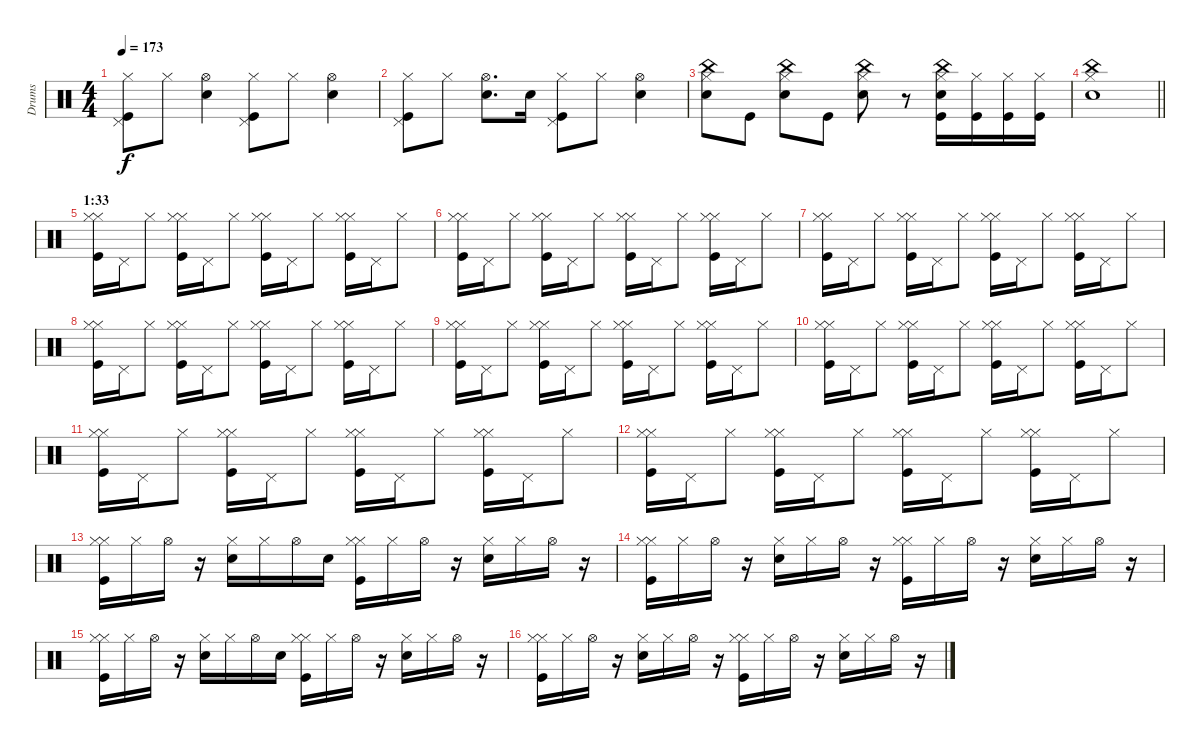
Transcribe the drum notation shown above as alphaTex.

\track ("Drums" "Drums") {instrument percussion}
\staff {score}
\articulation defaults
\ts (4 4)
\tempo 173
\clef neutral
\ks c
("Pedal Hi-Hat (hit)" "Hi-Hat (closed)" "Kick (hit)").8{dy f} "Hi-Hat (closed)".8 ("Hi-Hat (open)" "Snare (hit) 2").4 ("Pedal Hi-Hat (hit)" "Hi-Hat (closed)" "Kick (hit)").8 "Hi-Hat (closed)".8 ("Hi-Hat (open)" "Snare (hit) 2").4 |
("Pedal Hi-Hat (hit)" "Hi-Hat (closed)" "Kick (hit)").8 "Hi-Hat (closed)".8 ("Hi-Hat (open)" "Snare (hit) 2").8{d} "Snare (hit) 2".16 ("Pedal Hi-Hat (hit)" "Hi-Hat (closed)" "Kick (hit)").8 "Hi-Hat (closed)".8 ("Hi-Hat (open)" "Snare (hit) 2").4 |
("China (hit)" "Snare (hit) 2" "Hi-Hat (closed)").8 "Kick (hit)".8 ("China (hit)" "Snare (hit) 2" "Hi-Hat (closed)").8 "Kick (hit)".8 ("China (hit)" "Snare (hit) 2" "Hi-Hat (closed)").8 r.8 ("China (hit)" "Snare (hit) 2" "Hi-Hat (closed)" "Kick (hit)").16 ("Hi-Hat (closed)" "Kick (hit)").16 ("Hi-Hat (closed)" "Kick (hit)").16 ("Hi-Hat (closed)" "Kick (hit)").16 |
\barLineRight lightlight
("China (hit)" "Snare (hit) 2" "Hi-Hat (closed)").1 |
\section ("" "1:33")
("Hi-Hat (closed)" "Hi-Hat (closed)" "Kick (hit)").16 "Pedal Hi-Hat (hit)".16 "Hi-Hat (closed)".8 ("Hi-Hat (closed)" "Hi-Hat (closed)" "Kick (hit)").16 "Pedal Hi-Hat (hit)".16 "Hi-Hat (closed)".8 ("Hi-Hat (closed)" "Hi-Hat (closed)" "Kick (hit)").16 "Pedal Hi-Hat (hit)".16 "Hi-Hat (closed)".8 ("Hi-Hat (closed)" "Hi-Hat (closed)" "Kick (hit)").16 "Pedal Hi-Hat (hit)".16 "Hi-Hat (closed)".8 |
("Hi-Hat (closed)" "Hi-Hat (closed)" "Kick (hit)").16 "Pedal Hi-Hat (hit)".16 "Hi-Hat (closed)".8 ("Hi-Hat (closed)" "Hi-Hat (closed)" "Kick (hit)").16 "Pedal Hi-Hat (hit)".16 "Hi-Hat (closed)".8 ("Hi-Hat (closed)" "Hi-Hat (closed)" "Kick (hit)").16 "Pedal Hi-Hat (hit)".16 "Hi-Hat (closed)".8 ("Hi-Hat (closed)" "Hi-Hat (closed)" "Kick (hit)").16 "Pedal Hi-Hat (hit)".16 "Hi-Hat (closed)".8 |
("Hi-Hat (closed)" "Hi-Hat (closed)" "Kick (hit)").16 "Pedal Hi-Hat (hit)".16 "Hi-Hat (closed)".8 ("Hi-Hat (closed)" "Hi-Hat (closed)" "Kick (hit)").16 "Pedal Hi-Hat (hit)".16 "Hi-Hat (closed)".8 ("Hi-Hat (closed)" "Hi-Hat (closed)" "Kick (hit)").16 "Pedal Hi-Hat (hit)".16 "Hi-Hat (closed)".8 ("Hi-Hat (closed)" "Hi-Hat (closed)" "Kick (hit)").16 "Pedal Hi-Hat (hit)".16 "Hi-Hat (closed)".8 |
("Hi-Hat (closed)" "Hi-Hat (closed)" "Kick (hit)").16 "Pedal Hi-Hat (hit)".16 "Hi-Hat (closed)".8 ("Hi-Hat (closed)" "Hi-Hat (closed)" "Kick (hit)").16 "Pedal Hi-Hat (hit)".16 "Hi-Hat (closed)".8 ("Hi-Hat (closed)" "Hi-Hat (closed)" "Kick (hit)").16 "Pedal Hi-Hat (hit)".16 "Hi-Hat (closed)".8 ("Hi-Hat (closed)" "Hi-Hat (closed)" "Kick (hit)").16 "Pedal Hi-Hat (hit)".16 "Hi-Hat (closed)".8 |
("Hi-Hat (closed)" "Hi-Hat (closed)" "Kick (hit)").16 "Pedal Hi-Hat (hit)".16 "Hi-Hat (closed)".8 ("Hi-Hat (closed)" "Hi-Hat (closed)" "Kick (hit)").16 "Pedal Hi-Hat (hit)".16 "Hi-Hat (closed)".8 ("Hi-Hat (closed)" "Hi-Hat (closed)" "Kick (hit)").16 "Pedal Hi-Hat (hit)".16 "Hi-Hat (closed)".8 ("Hi-Hat (closed)" "Hi-Hat (closed)" "Kick (hit)").16 "Pedal Hi-Hat (hit)".16 "Hi-Hat (closed)".8 |
("Hi-Hat (closed)" "Hi-Hat (closed)" "Kick (hit)").16 "Pedal Hi-Hat (hit)".16 "Hi-Hat (closed)".8 ("Hi-Hat (closed)" "Hi-Hat (closed)" "Kick (hit)").16 "Pedal Hi-Hat (hit)".16 "Hi-Hat (closed)".8 ("Hi-Hat (closed)" "Hi-Hat (closed)" "Kick (hit)").16 "Pedal Hi-Hat (hit)".16 "Hi-Hat (closed)".8 ("Hi-Hat (closed)" "Hi-Hat (closed)" "Kick (hit)").16 "Pedal Hi-Hat (hit)".16 "Hi-Hat (closed)".8 |
("Hi-Hat (closed)" "Hi-Hat (closed)" "Kick (hit)").16 "Pedal Hi-Hat (hit)".16 "Hi-Hat (closed)".8 ("Hi-Hat (closed)" "Hi-Hat (closed)" "Kick (hit)").16 "Pedal Hi-Hat (hit)".16 "Hi-Hat (closed)".8 ("Hi-Hat (closed)" "Hi-Hat (closed)" "Kick (hit)").16 "Pedal Hi-Hat (hit)".16 "Hi-Hat (closed)".8 ("Hi-Hat (closed)" "Hi-Hat (closed)" "Kick (hit)").16 "Pedal Hi-Hat (hit)".16 "Hi-Hat (closed)".8 |
("Hi-Hat (closed)" "Hi-Hat (closed)" "Kick (hit)").16 "Pedal Hi-Hat (hit)".16 "Hi-Hat (closed)".8 ("Hi-Hat (closed)" "Hi-Hat (closed)" "Kick (hit)").16 "Pedal Hi-Hat (hit)".16 "Hi-Hat (closed)".8 ("Hi-Hat (closed)" "Hi-Hat (closed)" "Kick (hit)").16 "Pedal Hi-Hat (hit)".16 "Hi-Hat (closed)".8 ("Hi-Hat (closed)" "Hi-Hat (closed)" "Kick (hit)").16 "Pedal Hi-Hat (hit)".16 "Hi-Hat (closed)".8 |
("Hi-Hat (closed)" "Hi-Hat (closed)" "Kick (hit)").16 "Hi-Hat (closed)".16 "Hi-Hat (open)".16 r.16 ("Hi-Hat (closed)" "Snare (hit) 2").16 "Hi-Hat (closed)".16 "Hi-Hat (open)".16 "Snare (hit) 2".16 ("Hi-Hat (closed)" "Hi-Hat (closed)" "Kick (hit)").16 "Hi-Hat (closed)".16 "Hi-Hat (open)".16 r.16 ("Hi-Hat (closed)" "Snare (hit) 2").16 "Hi-Hat (closed)".16 "Hi-Hat (open)".16 r.16 |
("Hi-Hat (closed)" "Hi-Hat (closed)" "Kick (hit)").16 "Hi-Hat (closed)".16 "Hi-Hat (open)".16 r.16 ("Hi-Hat (closed)" "Snare (hit) 2").16 "Hi-Hat (closed)".16 "Hi-Hat (open)".16 r.16 ("Hi-Hat (closed)" "Hi-Hat (closed)" "Kick (hit)").16 "Hi-Hat (closed)".16 "Hi-Hat (open)".16 r.16 ("Hi-Hat (closed)" "Snare (hit) 2").16 "Hi-Hat (closed)".16 "Hi-Hat (open)".16 r.16 |
("Hi-Hat (closed)" "Hi-Hat (closed)" "Kick (hit)").16 "Hi-Hat (closed)".16 "Hi-Hat (open)".16 r.16 ("Hi-Hat (closed)" "Snare (hit) 2").16 "Hi-Hat (closed)".16 "Hi-Hat (open)".16 "Snare (hit) 2".16 ("Hi-Hat (closed)" "Hi-Hat (closed)" "Kick (hit)").16 "Hi-Hat (closed)".16 "Hi-Hat (open)".16 r.16 ("Hi-Hat (closed)" "Snare (hit) 2").16 "Hi-Hat (closed)".16 "Hi-Hat (open)".16 r.16 |
("Hi-Hat (closed)" "Hi-Hat (closed)" "Kick (hit)").16 "Hi-Hat (closed)".16 "Hi-Hat (open)".16 r.16 ("Hi-Hat (closed)" "Snare (hit) 2").16 "Hi-Hat (closed)".16 "Hi-Hat (open)".16 r.16 ("Hi-Hat (closed)" "Hi-Hat (closed)" "Kick (hit)").16 "Hi-Hat (closed)".16 "Hi-Hat (open)".16 r.16 ("Hi-Hat (closed)" "Snare (hit) 2").16 "Hi-Hat (closed)".16 "Hi-Hat (open)".16 r.16
